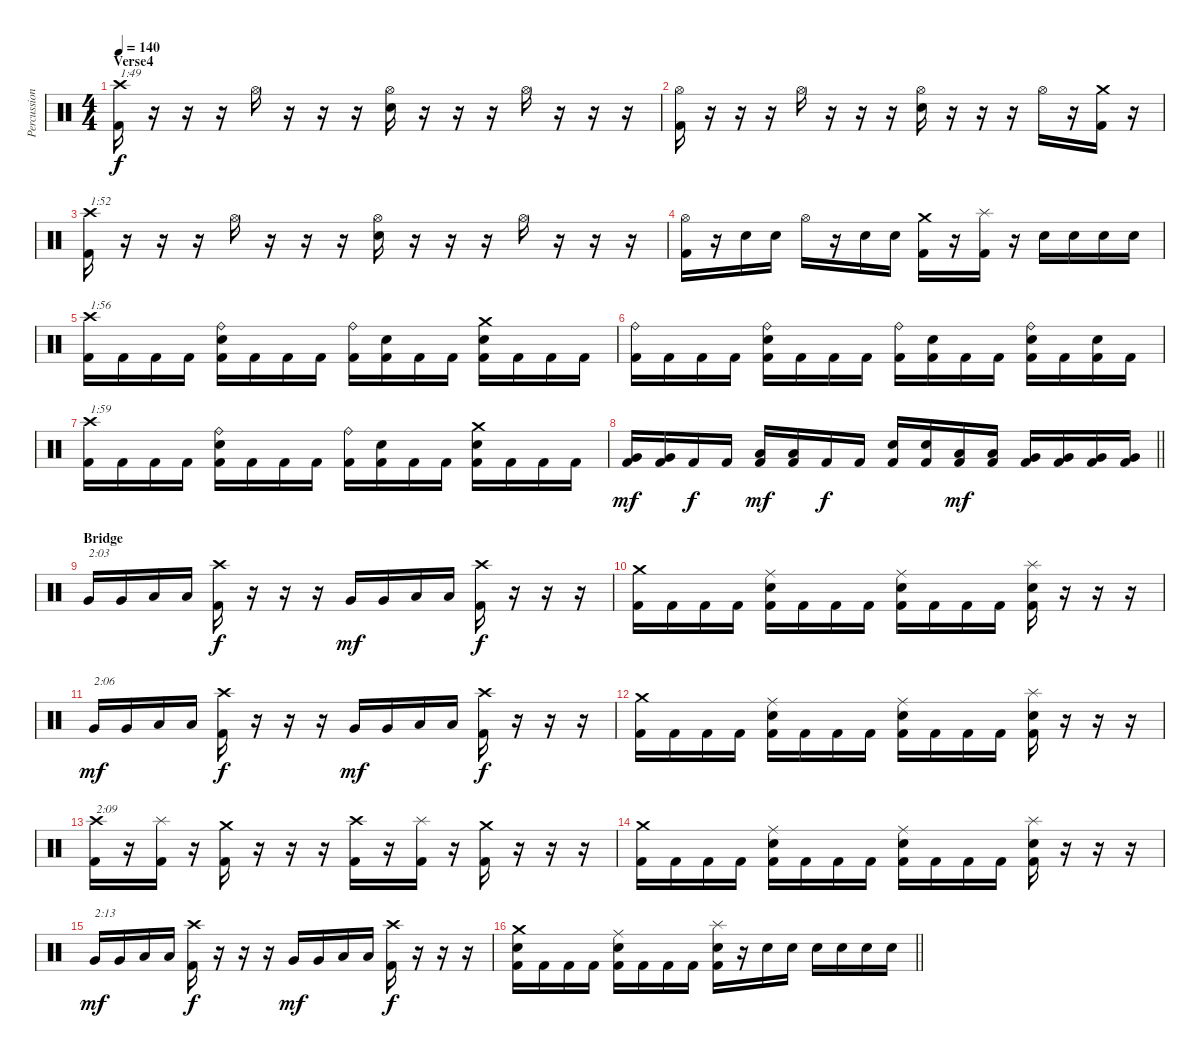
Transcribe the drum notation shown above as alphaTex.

\track ("Percussion" "Percussion") {instrument percussion}
\staff {score}
\articulation defaults
\ts (4 4)
\section ("" "Verse4")
\tempo 140
\clef neutral
\ks c
("Crash high (hit)" "Kick (hit) 2").16{txt "1:49" dy f} r.16 r.16 r.16 "Hi-Hat (open)".16 r.16 r.16 r.16 ("Hi-Hat (open)" "Electric Snare (hit)").16 r.16 r.16 r.16 "Hi-Hat (open)".16 r.16 r.16 r.16 |
("Hi-Hat (open)" "Kick (hit) 2").16 r.16 r.16 r.16 "Hi-Hat (open)".16 r.16 r.16 r.16 ("Hi-Hat (open)" "Electric Snare (hit)").16 r.16 r.16 r.16 "Hi-Hat (open)".16 r.16 ("Crash medium (hit)" "Kick (hit) 2").16 r.16 |
("Crash high (hit)" "Kick (hit) 2").16{txt "1:52"} r.16 r.16 r.16 "Hi-Hat (open)".16 r.16 r.16 r.16 ("Hi-Hat (open)" "Electric Snare (hit)").16 r.16 r.16 r.16 "Hi-Hat (open)".16 r.16 r.16 r.16 |
("Hi-Hat (open)" "Kick (hit) 2").16 r.16 "Electric Snare (hit)".16 "Electric Snare (hit)".16 "Hi-Hat (open)".16 r.16 "Electric Snare (hit)".16 "Electric Snare (hit)".16 ("Crash medium (hit)" "Kick (hit) 2").16 r.16 ("Splash (hit)" "Kick (hit) 2").16 r.16 "Electric Snare (hit)".16 "Electric Snare (hit)".16 "Electric Snare (hit)".16 "Electric Snare (hit)".16 |
("Crash high (hit)" "Kick (hit) 2").16{txt "1:56"} "Kick (hit) 2".16 "Kick (hit) 2".16 "Kick (hit) 2".16 ("Ride (bell)" "Electric Snare (hit)" "Kick (hit) 2").16 "Kick (hit) 2".16 "Kick (hit) 2".16 "Kick (hit) 2".16 ("Ride (bell)" "Kick (hit) 2").16 ("Electric Snare (hit)" "Kick (hit) 2").16 "Kick (hit) 2".16 "Kick (hit) 2".16 ("Crash medium (hit)" "Electric Snare (hit)" "Kick (hit) 2").16 "Kick (hit) 2".16 "Kick (hit) 2".16 "Kick (hit) 2".16 |
("Ride (bell)" "Kick (hit) 2").16 "Kick (hit) 2".16 "Kick (hit) 2".16 "Kick (hit) 2".16 ("Ride (bell)" "Electric Snare (hit)" "Kick (hit) 2").16 "Kick (hit) 2".16 "Kick (hit) 2".16 "Kick (hit) 2".16 ("Ride (bell)" "Kick (hit) 2").16 ("Electric Snare (hit)" "Kick (hit) 2").16 "Kick (hit) 2".16 "Kick (hit) 2".16 ("Ride (bell)" "Electric Snare (hit)" "Kick (hit) 2").16 "Kick (hit) 2".16 ("Electric Snare (hit)" "Kick (hit) 2").16 "Kick (hit) 2".16 |
("Crash high (hit)" "Kick (hit) 2").16{txt "1:59"} "Kick (hit) 2".16 "Kick (hit) 2".16 "Kick (hit) 2".16 ("Ride (bell)" "Electric Snare (hit)" "Kick (hit) 2").16 "Kick (hit) 2".16 "Kick (hit) 2".16 "Kick (hit) 2".16 ("Ride (bell)" "Kick (hit) 2").16 ("Electric Snare (hit)" "Kick (hit) 2").16 "Kick (hit) 2".16 "Kick (hit) 2".16 ("Crash medium (hit)" "Electric Snare (hit)" "Kick (hit) 2").16 "Kick (hit) 2".16 "Kick (hit) 2".16 "Kick (hit) 2".16 |
\barLineRight lightlight
("Very Low Tom (hit)" "Kick (hit) 2").16{dy mf} ("Very Low Tom (hit)" "Kick (hit) 2").16 "Kick (hit) 2".16{dy f} "Kick (hit) 2".16 ("Low Floor Tom (hit)" "Kick (hit) 2").16{dy mf} ("Low Floor Tom (hit)" "Kick (hit) 2").16 "Kick (hit) 2".16{dy f} "Kick (hit) 2".16 ("Electric Snare (hit)" "Kick (hit) 2").16 ("Electric Snare (hit)" "Kick (hit) 2").16 ("Low Tom (hit)" "Kick (hit) 2").16{dy mf} ("Low Tom (hit)" "Kick (hit) 2").16 ("Very Low Tom (hit)" "Kick (hit) 2").16 ("Very Low Tom (hit)" "Kick (hit) 2").16 ("Very Low Tom (hit)" "Kick (hit) 2").16 ("Very Low Tom (hit)" "Kick (hit) 2").16 |
\section ("" "Bridge")
"Very Low Tom (hit)".16{txt "2:03"} "Very Low Tom (hit)".16 "Low Floor Tom (hit)".16 "Low Floor Tom (hit)".16 ("Crash high (hit)" "Kick (hit) 2").16{dy f} r.16 r.16 r.16 "Very Low Tom (hit)".16{dy mf} "Very Low Tom (hit)".16 "Low Floor Tom (hit)".16 "Low Floor Tom (hit)".16 ("Crash high (hit)" "Kick (hit) 2").16{dy f} r.16 r.16 r.16 |
("Crash medium (hit)" "Kick (hit) 2").16 "Kick (hit) 2".16 "Kick (hit) 2".16 "Kick (hit) 2".16 ("Ride (middle)" "Electric Snare (hit)" "Kick (hit) 2").16 "Kick (hit) 2".16 "Kick (hit) 2".16 "Kick (hit) 2".16 ("Ride (middle)" "Electric Snare (hit)" "Kick (hit) 2").16 "Kick (hit) 2".16 "Kick (hit) 2".16 "Kick (hit) 2".16 ("Splash (hit)" "Electric Snare (hit)" "Kick (hit) 2").16 r.16 r.16 r.16 |
"Very Low Tom (hit)".16{txt "2:06" dy mf} "Very Low Tom (hit)".16 "Low Floor Tom (hit)".16 "Low Floor Tom (hit)".16 ("Crash high (hit)" "Kick (hit) 2").16{dy f} r.16 r.16 r.16 "Very Low Tom (hit)".16{dy mf} "Very Low Tom (hit)".16 "Low Floor Tom (hit)".16 "Low Floor Tom (hit)".16 ("Crash high (hit)" "Kick (hit) 2").16{dy f} r.16 r.16 r.16 |
("Crash medium (hit)" "Kick (hit) 2").16 "Kick (hit) 2".16 "Kick (hit) 2".16 "Kick (hit) 2".16 ("Ride (middle)" "Electric Snare (hit)" "Kick (hit) 2").16 "Kick (hit) 2".16 "Kick (hit) 2".16 "Kick (hit) 2".16 ("Ride (middle)" "Electric Snare (hit)" "Kick (hit) 2").16 "Kick (hit) 2".16 "Kick (hit) 2".16 "Kick (hit) 2".16 ("Splash (hit)" "Electric Snare (hit)" "Kick (hit) 2").16 r.16 r.16 r.16 |
("Crash high (hit)" "Kick (hit) 2").16{txt "2:09"} r.16 ("Splash (hit)" "Kick (hit) 2").16 r.16 ("Crash medium (hit)" "Kick (hit) 2").16 r.16 r.16 r.16 ("Crash high (hit)" "Kick (hit) 2").16 r.16 ("Splash (hit)" "Kick (hit) 2").16 r.16 ("Crash medium (hit)" "Kick (hit) 2").16 r.16 r.16 r.16 |
("Crash medium (hit)" "Kick (hit) 2").16 "Kick (hit) 2".16 "Kick (hit) 2".16 "Kick (hit) 2".16 ("Ride (middle)" "Electric Snare (hit)" "Kick (hit) 2").16 "Kick (hit) 2".16 "Kick (hit) 2".16 "Kick (hit) 2".16 ("Ride (middle)" "Electric Snare (hit)" "Kick (hit) 2").16 "Kick (hit) 2".16 "Kick (hit) 2".16 "Kick (hit) 2".16 ("Splash (hit)" "Electric Snare (hit)" "Kick (hit) 2").16 r.16 r.16 r.16 |
"Very Low Tom (hit)".16{txt "2:13" dy mf} "Very Low Tom (hit)".16 "Low Floor Tom (hit)".16 "Low Floor Tom (hit)".16 ("Crash high (hit)" "Kick (hit) 2").16{dy f} r.16 r.16 r.16 "Very Low Tom (hit)".16{dy mf} "Very Low Tom (hit)".16 "Low Floor Tom (hit)".16 "Low Floor Tom (hit)".16 ("Crash high (hit)" "Kick (hit) 2").16{dy f} r.16 r.16 r.16 |
\barLineRight lightlight
("Crash medium (hit)" "Electric Snare (hit)" "Kick (hit) 2").16 "Kick (hit) 2".16 "Kick (hit) 2".16 "Kick (hit) 2".16 ("Ride (middle)" "Electric Snare (hit)" "Kick (hit) 2").16 "Kick (hit) 2".16 "Kick (hit) 2".16 "Kick (hit) 2".16 ("Splash (hit)" "Electric Snare (hit)" "Kick (hit) 2").16 r.16 "Electric Snare (hit)".16 "Electric Snare (hit)".16 "Electric Snare (hit)".16 "Electric Snare (hit)".16 "Electric Snare (hit)".16 "Electric Snare (hit)".16
